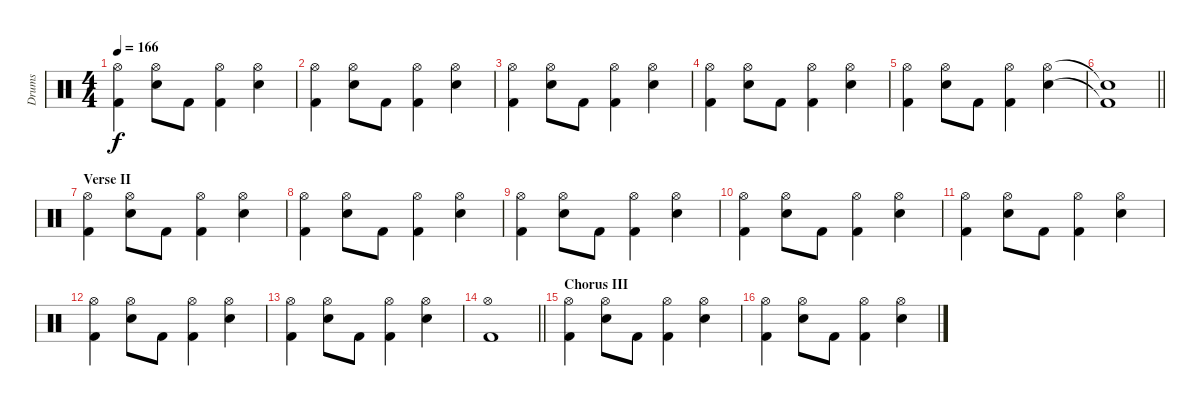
\track ("Drums" "Drums") {instrument percussion}
\staff {score}
\articulation defaults
\ts (4 4)
\tempo 166
\clef neutral
\ks c
("Hi-Hat (open)" "Kick (hit) 2").4{dy f} ("Hi-Hat (open)" "Snare (hit) 2").8 "Kick (hit) 2".8 ("Hi-Hat (open)" "Kick (hit) 2").4 ("Hi-Hat (open)" "Snare (hit) 2").4 |
("Hi-Hat (open)" "Kick (hit) 2").4 ("Hi-Hat (open)" "Snare (hit) 2").8 "Kick (hit) 2".8 ("Hi-Hat (open)" "Kick (hit) 2").4 ("Hi-Hat (open)" "Snare (hit) 2").4 |
("Hi-Hat (open)" "Kick (hit) 2").4 ("Hi-Hat (open)" "Snare (hit) 2").8 "Kick (hit) 2".8 ("Hi-Hat (open)" "Kick (hit) 2").4 ("Hi-Hat (open)" "Snare (hit) 2").4 |
("Hi-Hat (open)" "Kick (hit) 2").4 ("Hi-Hat (open)" "Snare (hit) 2").8 "Kick (hit) 2".8 ("Hi-Hat (open)" "Kick (hit) 2").4 ("Hi-Hat (open)" "Snare (hit) 2").4 |
("Hi-Hat (open)" "Kick (hit) 2").4 ("Hi-Hat (open)" "Snare (hit) 2").8 "Kick (hit) 2".8 ("Hi-Hat (open)" "Kick (hit) 2").4 ("Hi-Hat (open)" "Snare (hit) 2").4 |
\barLineRight lightlight
("Snare (hit)"{t} "Kick (hit) 2"{t}).1 |
\section ("" "Verse II")
("Hi-Hat (open)" "Kick (hit) 2").4 ("Hi-Hat (open)" "Snare (hit) 2").8 "Kick (hit) 2".8 ("Hi-Hat (open)" "Kick (hit) 2").4 ("Hi-Hat (open)" "Snare (hit) 2").4 |
("Hi-Hat (open)" "Kick (hit) 2").4 ("Hi-Hat (open)" "Snare (hit) 2").8 "Kick (hit) 2".8 ("Hi-Hat (open)" "Kick (hit) 2").4 ("Hi-Hat (open)" "Snare (hit) 2").4 |
("Hi-Hat (open)" "Kick (hit) 2").4 ("Hi-Hat (open)" "Snare (hit) 2").8 "Kick (hit) 2".8 ("Hi-Hat (open)" "Kick (hit) 2").4 ("Hi-Hat (open)" "Snare (hit) 2").4 |
("Hi-Hat (open)" "Kick (hit) 2").4 ("Hi-Hat (open)" "Snare (hit) 2").8 "Kick (hit) 2".8 ("Hi-Hat (open)" "Kick (hit) 2").4 ("Hi-Hat (open)" "Snare (hit) 2").4 |
("Hi-Hat (open)" "Kick (hit) 2").4 ("Hi-Hat (open)" "Snare (hit) 2").8 "Kick (hit) 2".8 ("Hi-Hat (open)" "Kick (hit) 2").4 ("Hi-Hat (open)" "Snare (hit) 2").4 |
("Hi-Hat (open)" "Kick (hit) 2").4 ("Hi-Hat (open)" "Snare (hit) 2").8 "Kick (hit) 2".8 ("Hi-Hat (open)" "Kick (hit) 2").4 ("Hi-Hat (open)" "Snare (hit) 2").4 |
("Hi-Hat (open)" "Kick (hit) 2").4 ("Hi-Hat (open)" "Snare (hit) 2").8 "Kick (hit) 2".8 ("Hi-Hat (open)" "Kick (hit) 2").4 ("Hi-Hat (open)" "Snare (hit) 2").4 |
\barLineRight lightlight
("Hi-Hat (open)" "Kick (hit) 2").1 |
\section ("" "Chorus III")
("Hi-Hat (open)" "Kick (hit) 2").4 ("Hi-Hat (open)" "Snare (hit) 2").8 "Kick (hit) 2".8 ("Hi-Hat (open)" "Kick (hit) 2").4 ("Hi-Hat (open)" "Snare (hit) 2").4 |
("Hi-Hat (open)" "Kick (hit) 2").4 ("Hi-Hat (open)" "Snare (hit) 2").8 "Kick (hit) 2".8 ("Hi-Hat (open)" "Kick (hit) 2").4 ("Hi-Hat (open)" "Snare (hit) 2").4
